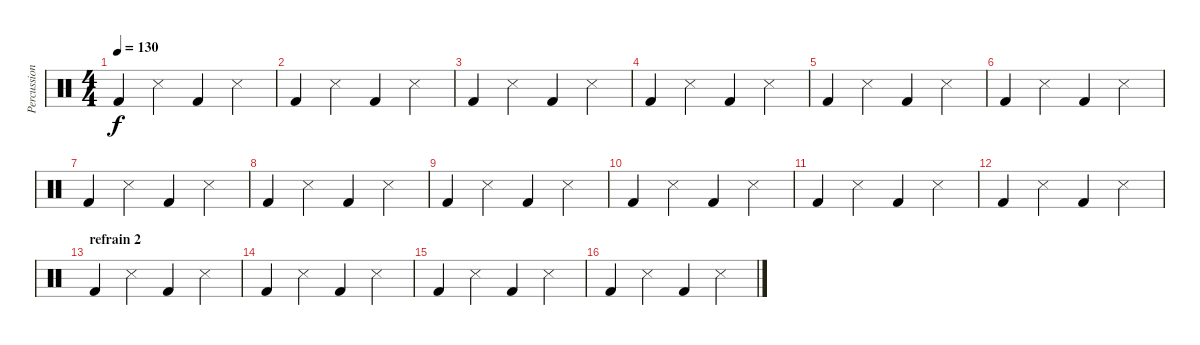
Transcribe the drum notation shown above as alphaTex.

\track ("Percussions" "Percussion") {instrument percussion}
\staff {score}
\articulation defaults
\ts (4 4)
\tempo 130
\clef neutral
\ks c "Kick (hit) 2".4{dy f} "Snare (side stick) 3".4 "Kick (hit) 2".4 "Snare (side stick) 3".4
|
"Kick (hit) 2".4 "Snare (side stick) 3".4 "Kick (hit) 2".4 "Snare (side stick) 3".4 |
"Kick (hit) 2".4 "Snare (side stick) 3".4 "Kick (hit) 2".4 "Snare (side stick) 3".4 |
"Kick (hit) 2".4 "Snare (side stick) 3".4 "Kick (hit) 2".4 "Snare (side stick) 3".4 |
"Kick (hit) 2".4 "Snare (side stick) 3".4 "Kick (hit) 2".4 "Snare (side stick) 3".4 |
"Kick (hit) 2".4 "Snare (side stick) 3".4 "Kick (hit) 2".4 "Snare (side stick) 3".4 |
"Kick (hit) 2".4 "Snare (side stick) 3".4 "Kick (hit) 2".4 "Snare (side stick) 3".4 |
"Kick (hit) 2".4 "Snare (side stick) 3".4 "Kick (hit) 2".4 "Snare (side stick) 3".4 |
"Kick (hit) 2".4 "Snare (side stick) 3".4 "Kick (hit) 2".4 "Snare (side stick) 3".4 |
"Kick (hit) 2".4 "Snare (side stick) 3".4 "Kick (hit) 2".4 "Snare (side stick) 3".4 |
"Kick (hit) 2".4 "Snare (side stick) 3".4 "Kick (hit) 2".4 "Snare (side stick) 3".4 |
"Kick (hit) 2".4 "Snare (side stick) 3".4 "Kick (hit) 2".4 "Snare (side stick) 3".4 |
\section ("" "refrain 2")
"Kick (hit) 2".4 "Snare (side stick) 3".4 "Kick (hit) 2".4 "Snare (side stick) 3".4 |
"Kick (hit) 2".4 "Snare (side stick) 3".4 "Kick (hit) 2".4 "Snare (side stick) 3".4 |
"Kick (hit) 2".4 "Snare (side stick) 3".4 "Kick (hit) 2".4 "Snare (side stick) 3".4 |
"Kick (hit) 2".4 "Snare (side stick) 3".4 "Kick (hit) 2".4 "Snare (side stick) 3".4
